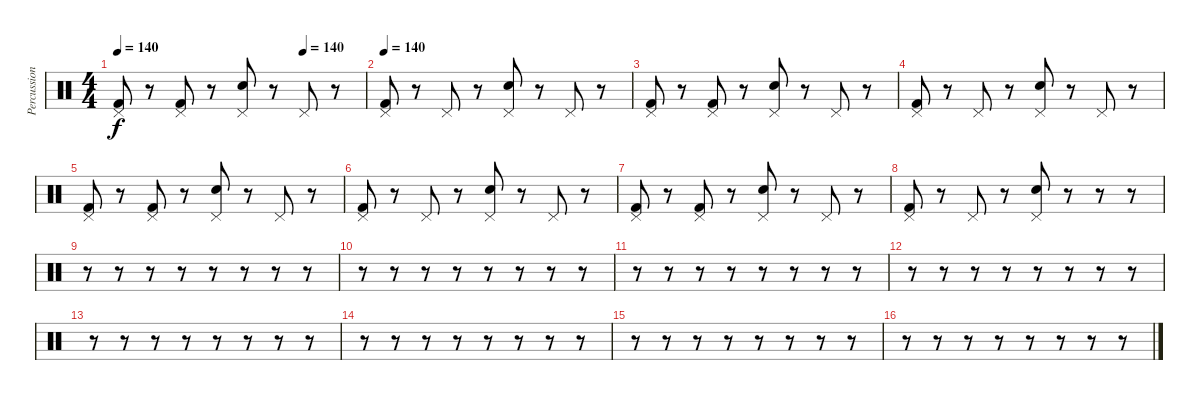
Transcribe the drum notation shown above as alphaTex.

\track ("Percussion" "Percussion") {instrument percussion}
\staff {score}
\articulation defaults
\ts (4 4)
\tempo 140
\tempo (140 0.75)
\clef neutral
\ks c
("Kick (hit) 2" "Pedal Hi-Hat (hit)").8{dy f} r.8 ("Kick (hit) 2" "Pedal Hi-Hat (hit)").8 r.8 ("Electric Snare (hit)" "Pedal Hi-Hat (hit)").8 r.8 "Pedal Hi-Hat (hit)".8 r.8 |
\tempo 140
("Kick (hit) 2" "Pedal Hi-Hat (hit)").8 r.8 "Pedal Hi-Hat (hit)".8 r.8 ("Electric Snare (hit)" "Pedal Hi-Hat (hit)").8 r.8 "Pedal Hi-Hat (hit)".8 r.8 |
("Kick (hit) 2" "Pedal Hi-Hat (hit)").8 r.8 ("Kick (hit) 2" "Pedal Hi-Hat (hit)").8 r.8 ("Electric Snare (hit)" "Pedal Hi-Hat (hit)").8 r.8 "Pedal Hi-Hat (hit)".8 r.8 |
("Kick (hit) 2" "Pedal Hi-Hat (hit)").8 r.8 "Pedal Hi-Hat (hit)".8 r.8 ("Electric Snare (hit)" "Pedal Hi-Hat (hit)").8 r.8 "Pedal Hi-Hat (hit)".8 r.8 |
("Kick (hit) 2" "Pedal Hi-Hat (hit)").8 r.8 ("Kick (hit) 2" "Pedal Hi-Hat (hit)").8 r.8 ("Electric Snare (hit)" "Pedal Hi-Hat (hit)").8 r.8 "Pedal Hi-Hat (hit)".8 r.8 |
("Kick (hit) 2" "Pedal Hi-Hat (hit)").8 r.8 "Pedal Hi-Hat (hit)".8 r.8 ("Electric Snare (hit)" "Pedal Hi-Hat (hit)").8 r.8 "Pedal Hi-Hat (hit)".8 r.8 |
("Kick (hit) 2" "Pedal Hi-Hat (hit)").8 r.8 ("Kick (hit) 2" "Pedal Hi-Hat (hit)").8 r.8 ("Electric Snare (hit)" "Pedal Hi-Hat (hit)").8 r.8 "Pedal Hi-Hat (hit)".8 r.8 |
("Kick (hit) 2" "Pedal Hi-Hat (hit)").8 r.8 "Pedal Hi-Hat (hit)".8 r.8 ("Electric Snare (hit)" "Pedal Hi-Hat (hit)").8 r.8 r.8 r.8 |
r.8 r.8 r.8 r.8 r.8 r.8 r.8 r.8 |
r.8 r.8 r.8 r.8 r.8 r.8 r.8 r.8 |
r.8 r.8 r.8 r.8 r.8 r.8 r.8 r.8 |
r.8 r.8 r.8 r.8 r.8 r.8 r.8 r.8 |
r.8 r.8 r.8 r.8 r.8 r.8 r.8 r.8 |
r.8 r.8 r.8 r.8 r.8 r.8 r.8 r.8 |
r.8 r.8 r.8 r.8 r.8 r.8 r.8 r.8 |
r.8 r.8 r.8 r.8 r.8 r.8 r.8 r.8
